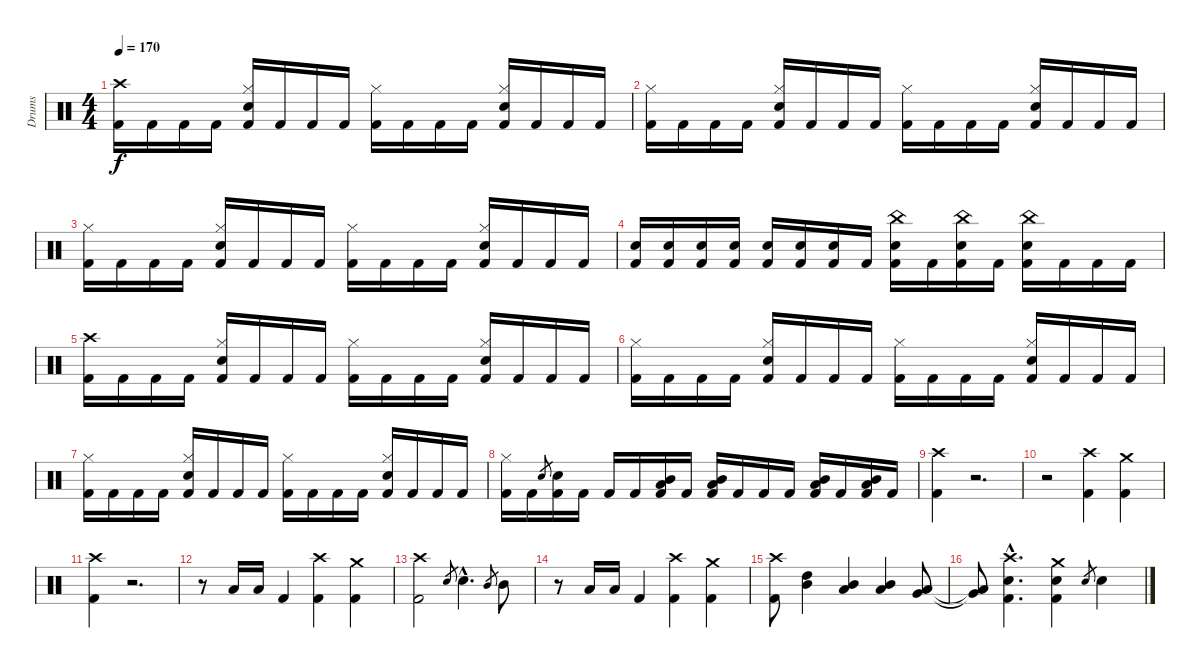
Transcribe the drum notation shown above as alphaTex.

\track ("Drums" "Drums") {instrument percussion}
\staff {score}
\articulation defaults
\ts (4 4)
\tempo 170
\clef neutral
\ks c
("Crash high (hit)" "Kick (hit) 2").16{dy f} "Kick (hit) 2".16 "Kick (hit) 2".16 "Kick (hit) 2".16 ("Hi-Hat (closed)" "Snare (hit) 2" "Kick (hit) 2").16 "Kick (hit) 2".16 "Kick (hit) 2".16 "Kick (hit) 2".16 ("Hi-Hat (closed)" "Kick (hit) 2").16 "Kick (hit) 2".16 "Kick (hit) 2".16 "Kick (hit) 2".16 ("Hi-Hat (closed)" "Snare (hit) 2" "Kick (hit) 2").16 "Kick (hit) 2".16 "Kick (hit) 2".16 "Kick (hit) 2".16 |
("Hi-Hat (closed)" "Kick (hit) 2").16 "Kick (hit) 2".16 "Kick (hit) 2".16 "Kick (hit) 2".16 ("Hi-Hat (closed)" "Snare (hit) 2" "Kick (hit) 2").16 "Kick (hit) 2".16 "Kick (hit) 2".16 "Kick (hit) 2".16 ("Hi-Hat (closed)" "Kick (hit) 2").16 "Kick (hit) 2".16 "Kick (hit) 2".16 "Kick (hit) 2".16 ("Hi-Hat (closed)" "Snare (hit) 2" "Kick (hit) 2").16 "Kick (hit) 2".16 "Kick (hit) 2".16 "Kick (hit) 2".16 |
("Hi-Hat (closed)" "Kick (hit) 2").16 "Kick (hit) 2".16 "Kick (hit) 2".16 "Kick (hit) 2".16 ("Hi-Hat (closed)" "Snare (hit) 2" "Kick (hit) 2").16 "Kick (hit) 2".16 "Kick (hit) 2".16 "Kick (hit) 2".16 ("Hi-Hat (closed)" "Kick (hit) 2").16 "Kick (hit) 2".16 "Kick (hit) 2".16 "Kick (hit) 2".16 ("Hi-Hat (closed)" "Snare (hit) 2" "Kick (hit) 2").16 "Kick (hit) 2".16 "Kick (hit) 2".16 "Kick (hit) 2".16 |
("Snare (hit) 2" "Kick (hit) 2").16 ("Snare (hit) 2" "Kick (hit) 2").16 ("Snare (hit) 2" "Kick (hit) 2").16 ("Snare (hit) 2" "Kick (hit) 2").16 ("Snare (hit) 2" "Kick (hit) 2").16 ("Snare (hit) 2" "Kick (hit) 2").16 ("Snare (hit) 2" "Kick (hit) 2").16 "Kick (hit) 2".16 ("China (hit)" "Snare (hit) 2" "Kick (hit) 2").16 "Kick (hit) 2".16 ("China (hit)" "Snare (hit) 2" "Kick (hit) 2").16 "Kick (hit) 2".16 ("China (hit)" "Snare (hit) 2" "Kick (hit) 2").16 "Kick (hit) 2".16 "Kick (hit) 2".16 "Kick (hit) 2".16 |
("Crash high (hit)" "Kick (hit) 2").16 "Kick (hit) 2".16 "Kick (hit) 2".16 "Kick (hit) 2".16 ("Hi-Hat (closed)" "Snare (hit) 2" "Kick (hit) 2").16 "Kick (hit) 2".16 "Kick (hit) 2".16 "Kick (hit) 2".16 ("Hi-Hat (closed)" "Kick (hit) 2").16 "Kick (hit) 2".16 "Kick (hit) 2".16 "Kick (hit) 2".16 ("Hi-Hat (closed)" "Snare (hit) 2" "Kick (hit) 2").16 "Kick (hit) 2".16 "Kick (hit) 2".16 "Kick (hit) 2".16 |
("Hi-Hat (closed)" "Kick (hit) 2").16 "Kick (hit) 2".16 "Kick (hit) 2".16 "Kick (hit) 2".16 ("Hi-Hat (closed)" "Snare (hit) 2" "Kick (hit) 2").16 "Kick (hit) 2".16 "Kick (hit) 2".16 "Kick (hit) 2".16 ("Hi-Hat (closed)" "Kick (hit) 2").16 "Kick (hit) 2".16 "Kick (hit) 2".16 "Kick (hit) 2".16 ("Hi-Hat (closed)" "Snare (hit) 2" "Kick (hit) 2").16 "Kick (hit) 2".16 "Kick (hit) 2".16 "Kick (hit) 2".16 |
("Hi-Hat (closed)" "Kick (hit) 2").16 "Kick (hit) 2".16 "Kick (hit) 2".16 "Kick (hit) 2".16 ("Hi-Hat (closed)" "Snare (hit) 2" "Kick (hit) 2").16 "Kick (hit) 2".16 "Kick (hit) 2".16 "Kick (hit) 2".16 ("Hi-Hat (closed)" "Kick (hit) 2").16 "Kick (hit) 2".16 "Kick (hit) 2".16 "Kick (hit) 2".16 ("Hi-Hat (closed)" "Snare (hit) 2" "Kick (hit) 2").16 "Kick (hit) 2".16 "Kick (hit) 2".16 "Kick (hit) 2".16 |
("Hi-Hat (closed)" "Kick (hit) 2").16 "Kick (hit) 2".16 "Snare (hit) 2".8{gr} ("Snare (hit) 2" "Kick (hit) 2").16 "Kick (hit) 2".16 "Kick (hit) 2".16 "Kick (hit) 2".16 ("Mid Tom (hit)" "Low Tom (hit)" "Kick (hit) 2").16 "Kick (hit) 2".16 ("Mid Tom (hit)" "Low Tom (hit)" "Kick (hit) 2").16 "Kick (hit) 2".16 "Kick (hit) 2".16 "Kick (hit) 2".16 ("Mid Tom (hit)" "Low Tom (hit)" "Kick (hit) 2").16 "Kick (hit) 2".16 ("Mid Tom (hit)" "Low Tom (hit)" "Kick (hit) 2").16 "Kick (hit) 2".16 |
("Crash high (hit)" "Kick (hit) 2").4 r.2{d} |
r.2 ("Crash high (hit)" "Kick (hit) 2").4 ("Crash medium (hit)" "Kick (hit) 2").4 |
("Crash high (hit)" "Kick (hit) 2").4 r.2{d} |
r.8 "Low Tom (hit)".16 "Low Tom (hit)".16 "Kick (hit) 2".4 ("Crash high (hit)" "Kick (hit) 2").4 ("Crash medium (hit)" "Kick (hit) 2").4 |
("Crash high (hit)" "Kick (hit) 2").2 "Snare (hit) 2".8{gr} "Snare (hit) 2"{hac}.4{d} "Mid Tom (hit)".8{gr} "Mid Tom (hit)".8 |
r.8 "Low Tom (hit)".16 "Low Tom (hit)".16 "Kick (hit) 2".4 ("Crash high (hit)" "Kick (hit) 2").4 ("Crash medium (hit)" "Kick (hit) 2").4 |
("Crash high (hit)" "Kick (hit) 2").8 ("High Tom (hit)" "Mid Tom (hit)").4 ("Mid Tom (hit)" "Low Tom (hit)").4 ("Mid Tom (hit)" "Low Tom (hit)").4 ("Low Tom (hit)" "Very Low Tom (hit)").8 |
("Low Tom (hit)"{t} "Very Low Tom (hit)"{t}).8 ("Crash high (hit)"{hac} "Snare (hit) 2"{hac} "Kick (hit) 2"{hac}).4{d} ("Crash medium (hit)" "Snare (hit) 2" "Kick (hit) 2").4 "Snare (hit) 2".8{gr} "Snare (hit) 2".4
